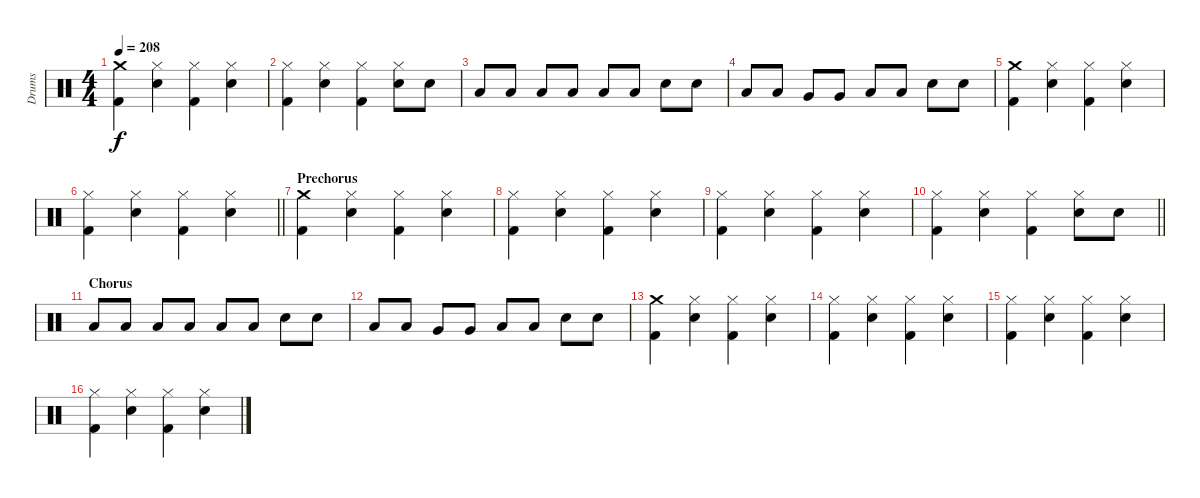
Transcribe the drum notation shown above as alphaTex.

\track ("Drums" "Drums") {instrument percussion}
\staff {score}
\articulation defaults
\ts (4 4)
\tempo 208
\clef neutral
\ks c
("Crash medium (hit)" "Kick (hit) 2").4{dy f} ("Hi-Hat (closed)" "Snare (hit) 2").4 ("Hi-Hat (closed)" "Kick (hit) 2").4 ("Hi-Hat (closed)" "Snare (hit) 2").4 |
("Hi-Hat (closed)" "Kick (hit) 2").4 ("Hi-Hat (closed)" "Snare (hit) 2").4 ("Hi-Hat (closed)" "Kick (hit) 2").4 ("Hi-Hat (closed)" "Snare (hit) 2").8 "Snare (hit) 2".8 |
"Low Floor Tom (hit)".8 "Low Floor Tom (hit)".8 "Low Tom (hit)".8 "Low Tom (hit)".8 "Low Floor Tom (hit)".8 "Low Floor Tom (hit)".8 "Snare (hit) 2".8 "Snare (hit) 2".8 |
"Low Floor Tom (hit)".8 "Low Floor Tom (hit)".8 "Very Low Tom (hit)".8 "Very Low Tom (hit)".8 "Low Floor Tom (hit)".8 "Low Floor Tom (hit)".8 "Snare (hit) 2".8 "Snare (hit) 2".8 |
("Crash medium (hit)" "Kick (hit) 2").4 ("Hi-Hat (closed)" "Snare (hit) 2").4 ("Hi-Hat (closed)" "Kick (hit) 2").4 ("Hi-Hat (closed)" "Snare (hit) 2").4 |
\barLineRight lightlight
("Hi-Hat (closed)" "Kick (hit) 2").4 ("Hi-Hat (closed)" "Snare (hit) 2").4 ("Hi-Hat (closed)" "Kick (hit) 2").4 ("Hi-Hat (closed)" "Snare (hit) 2").4 |
\section ("" "Prechorus")
("Crash medium (hit)" "Kick (hit) 2").4 ("Hi-Hat (closed)" "Snare (hit) 2").4 ("Hi-Hat (closed)" "Kick (hit) 2").4 ("Hi-Hat (closed)" "Snare (hit) 2").4 |
("Hi-Hat (closed)" "Kick (hit) 2").4 ("Hi-Hat (closed)" "Snare (hit) 2").4 ("Hi-Hat (closed)" "Kick (hit) 2").4 ("Hi-Hat (closed)" "Snare (hit) 2").4 |
("Hi-Hat (closed)" "Kick (hit) 2").4 ("Hi-Hat (closed)" "Snare (hit) 2").4 ("Hi-Hat (closed)" "Kick (hit) 2").4 ("Hi-Hat (closed)" "Snare (hit) 2").4 |
\barLineRight lightlight
("Hi-Hat (closed)" "Kick (hit) 2").4 ("Hi-Hat (closed)" "Snare (hit) 2").4 ("Hi-Hat (closed)" "Kick (hit) 2").4 ("Hi-Hat (closed)" "Snare (hit) 2").8 "Snare (hit) 2".8 |
\section ("" "Chorus")
"Low Floor Tom (hit)".8 "Low Floor Tom (hit)".8 "Low Tom (hit)".8 "Low Tom (hit)".8 "Low Floor Tom (hit)".8 "Low Floor Tom (hit)".8 "Snare (hit) 2".8 "Snare (hit) 2".8 |
"Low Floor Tom (hit)".8 "Low Floor Tom (hit)".8 "Very Low Tom (hit)".8 "Very Low Tom (hit)".8 "Low Floor Tom (hit)".8 "Low Floor Tom (hit)".8 "Snare (hit) 2".8 "Snare (hit) 2".8 |
("Crash medium (hit)" "Kick (hit) 2").4 ("Hi-Hat (closed)" "Snare (hit) 2").4 ("Hi-Hat (closed)" "Kick (hit) 2").4 ("Hi-Hat (closed)" "Snare (hit) 2").4 |
("Hi-Hat (closed)" "Kick (hit) 2").4 ("Hi-Hat (closed)" "Snare (hit) 2").4 ("Hi-Hat (closed)" "Kick (hit) 2").4 ("Hi-Hat (closed)" "Snare (hit) 2").4 |
("Hi-Hat (closed)" "Kick (hit) 2").4 ("Hi-Hat (closed)" "Snare (hit) 2").4 ("Hi-Hat (closed)" "Kick (hit) 2").4 ("Hi-Hat (closed)" "Snare (hit) 2").4 |
("Hi-Hat (closed)" "Kick (hit) 2").4 ("Hi-Hat (closed)" "Snare (hit) 2").4 ("Hi-Hat (closed)" "Kick (hit) 2").4 ("Hi-Hat (closed)" "Snare (hit) 2").4
